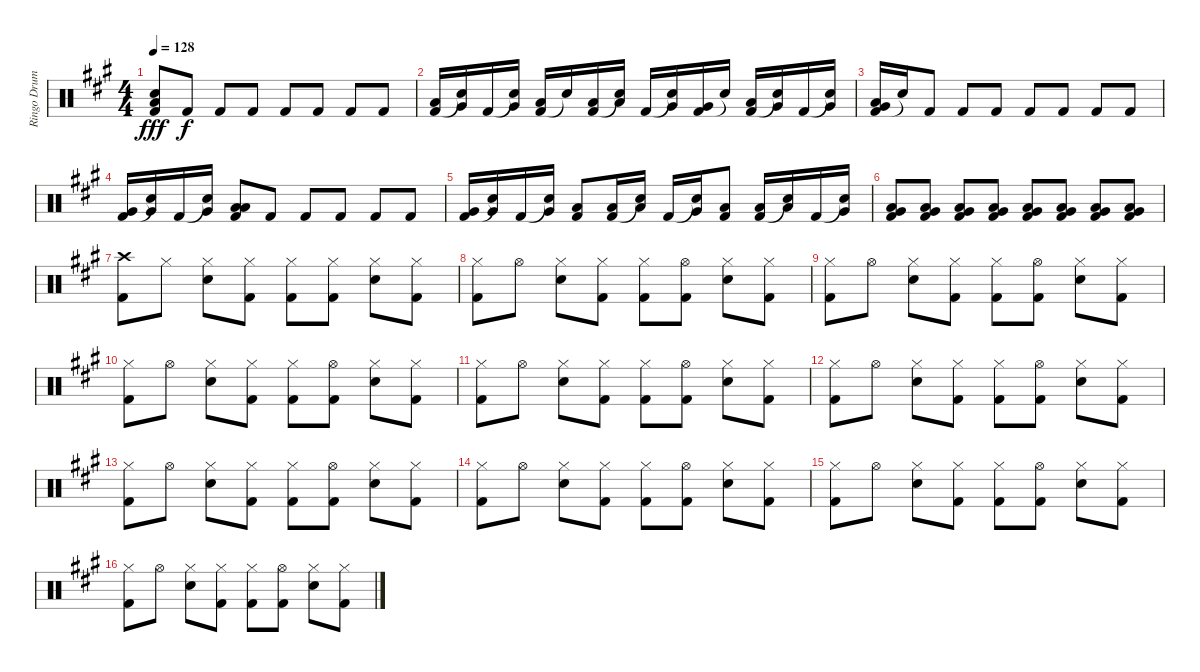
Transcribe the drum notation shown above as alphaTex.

\track ("Ringo Drums" "Ringo Drum") {instrument percussion}
\staff {score}
\articulation defaults
\ts (4 4)
\tempo 128
\clef neutral
\ks a
("Kick (hit) 2" "Snare (hit) 2" "Low Floor Tom (hit)").8{dy fff} "Kick (hit) 2".8{dy f} "Kick (hit) 2".8 "Kick (hit) 2".8 "Kick (hit) 2".8 "Kick (hit) 2".8 "Kick (hit) 2".8 "Kick (hit) 2".8 |
("Kick (hit) 2" "Low Tom (hit)").16 ("Snare (hit)"{t} "Very Low Tom (hit)").16 "Kick (hit) 2".16 ("Snare (hit)"{t} "Very Low Tom (hit)").16 ("Kick (hit) 2" "Low Floor Tom (hit)").16 "Snare (hit)"{t}.16 ("Kick (hit) 2" "Low Tom (hit)").16 ("Snare (hit)"{t} "Low Tom (hit)").16 "Kick (hit) 2".16 ("Snare (hit)"{t} "Very Low Tom (hit)").16 ("Kick (hit) 2" "Very Low Tom (hit)").16 "Snare (hit)"{t}.16 ("Kick (hit) 2" "Low Tom (hit)").16 ("Snare (hit)"{t} "Very Low Tom (hit)").16 "Kick (hit) 2".16 ("Snare (hit)"{t} "Very Low Tom (hit)").16 |
("Kick (hit) 2" "Low Floor Tom (hit)" "Very Low Tom (hit)").16 "Snare (hit)"{t}.16 "Kick (hit) 2".8 "Kick (hit) 2".8 "Kick (hit) 2".8 "Kick (hit) 2".8 "Kick (hit) 2".8 "Kick (hit) 2".8 "Kick (hit) 2".8 |
("Kick (hit) 2" "Very Low Tom (hit)").16 ("Snare (hit)"{t} "Very Low Tom (hit)").16 "Kick (hit) 2".16 ("Snare (hit)"{t} "Very Low Tom (hit)").16 ("Kick (hit) 2" "Low Floor Tom (hit)" "Low Tom (hit)").8 "Kick (hit) 2".8 "Kick (hit) 2".8 "Kick (hit) 2".8 "Kick (hit) 2".8 "Kick (hit) 2".8 |
("Kick (hit) 2" "Very Low Tom (hit)").16 ("Snare (hit)"{t} "Very Low Tom (hit)").16 "Kick (hit) 2".16 ("Snare (hit)"{t} "Very Low Tom (hit)").16 ("Kick (hit) 2" "Low Tom (hit)").8 ("Kick (hit) 2" "Low Tom (hit)").16 ("Snare (hit)"{t} "Low Tom (hit)").16 "Kick (hit) 2".16 ("Snare (hit)"{t} "Very Low Tom (hit)").16 ("Kick (hit) 2" "Low Tom (hit)").8 ("Kick (hit) 2" "Low Tom (hit)").16 ("Snare (hit)"{t} "Low Tom (hit)").16 "Kick (hit) 2".16 ("Snare (hit)"{t} "Very Low Tom (hit)").16 |
("Kick (hit) 2" "Low Floor Tom (hit)" "Very Low Tom (hit)").8 ("Kick (hit) 2" "Low Floor Tom (hit)" "Very Low Tom (hit)").8 ("Kick (hit) 2" "Low Floor Tom (hit)" "Very Low Tom (hit)").8 ("Kick (hit) 2" "Low Floor Tom (hit)" "Very Low Tom (hit)").8 ("Kick (hit) 2" "Low Floor Tom (hit)" "Very Low Tom (hit)").8 ("Kick (hit) 2" "Low Floor Tom (hit)" "Very Low Tom (hit)").8 ("Kick (hit) 2" "Low Floor Tom (hit)" "Very Low Tom (hit)").8 ("Kick (hit) 2" "Low Floor Tom (hit)" "Very Low Tom (hit)").8 |
("Kick (hit) 2" "Crash high (hit)").8 "Hi-Hat (closed)".8 ("Snare (hit) 2" "Hi-Hat (closed)").8 ("Kick (hit) 2" "Hi-Hat (closed)").8 ("Kick (hit) 2" "Hi-Hat (closed)").8 ("Kick (hit) 2" "Hi-Hat (closed)").8 ("Snare (hit) 2" "Hi-Hat (closed)").8 ("Kick (hit) 2" "Hi-Hat (closed)").8 |
("Kick (hit) 2" "Hi-Hat (closed)").8 "Hi-Hat (open)".8 ("Snare (hit) 2" "Hi-Hat (closed)").8 ("Kick (hit) 2" "Hi-Hat (closed)").8 ("Kick (hit) 2" "Hi-Hat (closed)").8 ("Kick (hit) 2" "Hi-Hat (open)").8 ("Snare (hit) 2" "Hi-Hat (closed)").8 ("Kick (hit) 2" "Hi-Hat (closed)").8 |
("Kick (hit) 2" "Hi-Hat (closed)").8 "Hi-Hat (open)".8 ("Snare (hit) 2" "Hi-Hat (closed)").8 ("Kick (hit) 2" "Hi-Hat (closed)").8 ("Kick (hit) 2" "Hi-Hat (closed)").8 ("Kick (hit) 2" "Hi-Hat (open)").8 ("Snare (hit) 2" "Hi-Hat (closed)").8 ("Kick (hit) 2" "Hi-Hat (closed)").8 |
("Kick (hit) 2" "Hi-Hat (closed)").8 "Hi-Hat (open)".8 ("Snare (hit) 2" "Hi-Hat (closed)").8 ("Kick (hit) 2" "Hi-Hat (closed)").8 ("Kick (hit) 2" "Hi-Hat (closed)").8 ("Kick (hit) 2" "Hi-Hat (open)").8 ("Snare (hit) 2" "Hi-Hat (closed)").8 ("Kick (hit) 2" "Hi-Hat (closed)").8 |
("Kick (hit) 2" "Hi-Hat (closed)").8 "Hi-Hat (open)".8 ("Snare (hit) 2" "Hi-Hat (closed)").8 ("Kick (hit) 2" "Hi-Hat (closed)").8 ("Kick (hit) 2" "Hi-Hat (closed)").8 ("Kick (hit) 2" "Hi-Hat (open)").8 ("Snare (hit) 2" "Hi-Hat (closed)").8 ("Kick (hit) 2" "Hi-Hat (closed)").8 |
("Kick (hit) 2" "Hi-Hat (closed)").8 "Hi-Hat (open)".8 ("Snare (hit) 2" "Hi-Hat (closed)").8 ("Kick (hit) 2" "Hi-Hat (closed)").8 ("Kick (hit) 2" "Hi-Hat (closed)").8 ("Kick (hit) 2" "Hi-Hat (open)").8 ("Snare (hit) 2" "Hi-Hat (closed)").8 ("Kick (hit) 2" "Hi-Hat (closed)").8 |
("Kick (hit) 2" "Hi-Hat (closed)").8 "Hi-Hat (open)".8 ("Snare (hit) 2" "Hi-Hat (closed)").8 ("Kick (hit) 2" "Hi-Hat (closed)").8 ("Kick (hit) 2" "Hi-Hat (closed)").8 ("Kick (hit) 2" "Hi-Hat (open)").8 ("Snare (hit) 2" "Hi-Hat (closed)").8 ("Kick (hit) 2" "Hi-Hat (closed)").8 |
("Kick (hit) 2" "Hi-Hat (closed)").8 "Hi-Hat (open)".8 ("Snare (hit) 2" "Hi-Hat (closed)").8 ("Kick (hit) 2" "Hi-Hat (closed)").8 ("Kick (hit) 2" "Hi-Hat (closed)").8 ("Kick (hit) 2" "Hi-Hat (open)").8 ("Snare (hit) 2" "Hi-Hat (closed)").8 ("Kick (hit) 2" "Hi-Hat (closed)").8 |
("Kick (hit) 2" "Hi-Hat (closed)").8 "Hi-Hat (open)".8 ("Snare (hit) 2" "Hi-Hat (closed)").8 ("Kick (hit) 2" "Hi-Hat (closed)").8 ("Kick (hit) 2" "Hi-Hat (closed)").8 ("Kick (hit) 2" "Hi-Hat (open)").8 ("Snare (hit) 2" "Hi-Hat (closed)").8 ("Kick (hit) 2" "Hi-Hat (closed)").8 |
("Kick (hit) 2" "Hi-Hat (closed)").8 "Hi-Hat (open)".8 ("Snare (hit) 2" "Hi-Hat (closed)").8 ("Kick (hit) 2" "Hi-Hat (closed)").8 ("Kick (hit) 2" "Hi-Hat (closed)").8 ("Kick (hit) 2" "Hi-Hat (open)").8 ("Snare (hit) 2" "Hi-Hat (closed)").8 ("Kick (hit) 2" "Hi-Hat (closed)").8
